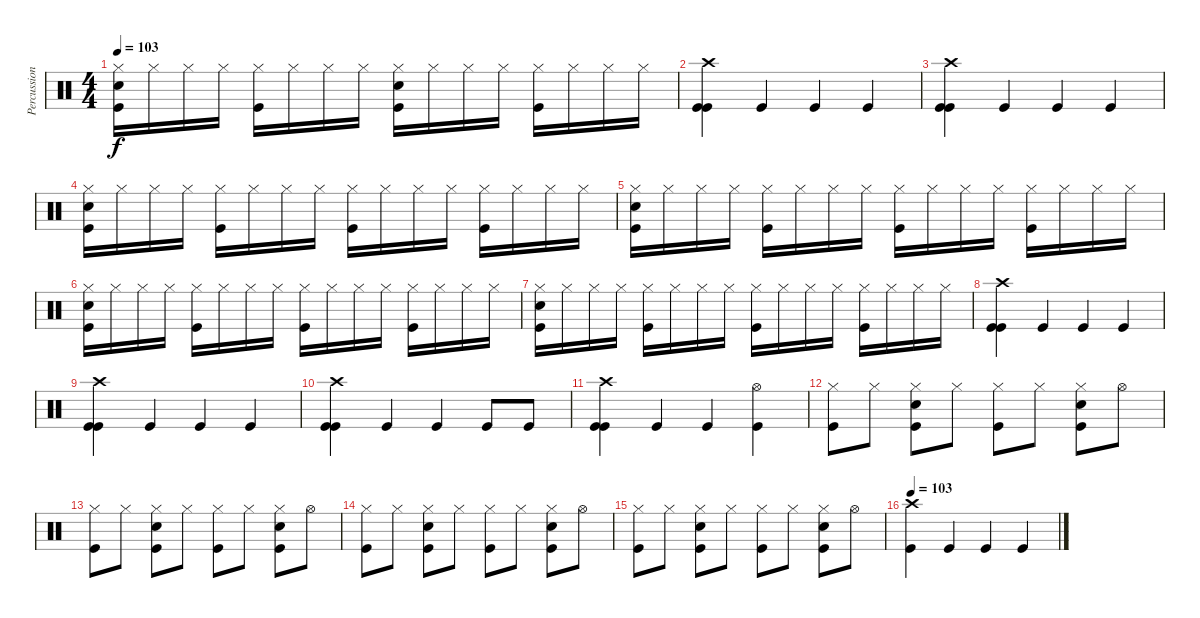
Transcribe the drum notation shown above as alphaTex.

\track ("Percussions" "Percussion") {instrument percussion}
\staff {score}
\articulation defaults
\ts (4 4)
\tempo 103
\clef neutral
\ks c
("Hi-Hat (closed)" "Kick (hit)" "Snare (hit) 2").16{dy f} "Hi-Hat (closed)".16 "Hi-Hat (closed)".16 "Hi-Hat (closed)".16 ("Hi-Hat (closed)" "Kick (hit)").16 "Hi-Hat (closed)".16 "Hi-Hat (closed)".16 "Hi-Hat (closed)".16 ("Hi-Hat (closed)" "Kick (hit)" "Snare (hit) 2").16 "Hi-Hat (closed)".16 "Hi-Hat (closed)".16 "Hi-Hat (closed)".16 ("Hi-Hat (closed)" "Kick (hit)").16 "Hi-Hat (closed)".16 "Hi-Hat (closed)".16 "Hi-Hat (closed)".16 |
("Crash high (hit)" "Kick (hit)" "Kick (hit)").4 "Kick (hit)".4 "Kick (hit)".4 "Kick (hit)".4 |
("Crash high (hit)" "Kick (hit)" "Kick (hit)").4 "Kick (hit)".4 "Kick (hit)".4 "Kick (hit)".4 |
("Hi-Hat (closed)" "Kick (hit)" "Snare (hit) 2").16 "Hi-Hat (closed)".16 "Hi-Hat (closed)".16 "Hi-Hat (closed)".16 ("Hi-Hat (closed)" "Kick (hit)").16 "Hi-Hat (closed)".16 "Hi-Hat (closed)".16 "Hi-Hat (closed)".16 ("Hi-Hat (closed)" "Kick (hit)").16 "Hi-Hat (closed)".16 "Hi-Hat (closed)".16 "Hi-Hat (closed)".16 ("Hi-Hat (closed)" "Kick (hit)").16 "Hi-Hat (closed)".16 "Hi-Hat (closed)".16 "Hi-Hat (closed)".16 |
("Hi-Hat (closed)" "Kick (hit)" "Snare (hit) 2").16 "Hi-Hat (closed)".16 "Hi-Hat (closed)".16 "Hi-Hat (closed)".16 ("Hi-Hat (closed)" "Kick (hit)").16 "Hi-Hat (closed)".16 "Hi-Hat (closed)".16 "Hi-Hat (closed)".16 ("Hi-Hat (closed)" "Kick (hit)").16 "Hi-Hat (closed)".16 "Hi-Hat (closed)".16 "Hi-Hat (closed)".16 ("Hi-Hat (closed)" "Kick (hit)").16 "Hi-Hat (closed)".16 "Hi-Hat (closed)".16 "Hi-Hat (closed)".16 |
("Hi-Hat (closed)" "Kick (hit)" "Snare (hit) 2").16 "Hi-Hat (closed)".16 "Hi-Hat (closed)".16 "Hi-Hat (closed)".16 ("Hi-Hat (closed)" "Kick (hit)").16 "Hi-Hat (closed)".16 "Hi-Hat (closed)".16 "Hi-Hat (closed)".16 ("Hi-Hat (closed)" "Kick (hit)").16 "Hi-Hat (closed)".16 "Hi-Hat (closed)".16 "Hi-Hat (closed)".16 ("Hi-Hat (closed)" "Kick (hit)").16 "Hi-Hat (closed)".16 "Hi-Hat (closed)".16 "Hi-Hat (closed)".16 |
("Hi-Hat (closed)" "Kick (hit)" "Snare (hit) 2").16 "Hi-Hat (closed)".16 "Hi-Hat (closed)".16 "Hi-Hat (closed)".16 ("Hi-Hat (closed)" "Kick (hit)").16 "Hi-Hat (closed)".16 "Hi-Hat (closed)".16 "Hi-Hat (closed)".16 ("Hi-Hat (closed)" "Kick (hit)").16 "Hi-Hat (closed)".16 "Hi-Hat (closed)".16 "Hi-Hat (closed)".16 ("Hi-Hat (closed)" "Kick (hit)").16 "Hi-Hat (closed)".16 "Hi-Hat (closed)".16 "Hi-Hat (closed)".16 |
("Crash high (hit)" "Kick (hit)" "Kick (hit)").4 "Kick (hit)".4 "Kick (hit)".4 "Kick (hit)".4 |
("Crash high (hit)" "Kick (hit)" "Kick (hit)").4 "Kick (hit)".4 "Kick (hit)".4 "Kick (hit)".4 |
("Crash high (hit)" "Kick (hit)" "Kick (hit)").4 "Kick (hit)".4 "Kick (hit)".4 "Kick (hit)".8 "Kick (hit)".8 |
("Crash high (hit)" "Kick (hit)" "Kick (hit)").4 "Kick (hit)".4 "Kick (hit)".4 ("Hi-Hat (open)" "Kick (hit)").4 |
("Hi-Hat (closed)" "Kick (hit)").8 "Hi-Hat (closed)".8 ("Hi-Hat (closed)" "Kick (hit)" "Snare (hit) 2").8 "Hi-Hat (closed)".8 ("Hi-Hat (closed)" "Kick (hit)").8 "Hi-Hat (closed)".8 ("Hi-Hat (closed)" "Kick (hit)" "Snare (hit) 2").8 "Hi-Hat (open)".8 |
("Hi-Hat (closed)" "Kick (hit)").8 "Hi-Hat (closed)".8 ("Hi-Hat (closed)" "Kick (hit)" "Snare (hit) 2").8 "Hi-Hat (closed)".8 ("Hi-Hat (closed)" "Kick (hit)").8 "Hi-Hat (closed)".8 ("Hi-Hat (closed)" "Kick (hit)" "Snare (hit) 2").8 "Hi-Hat (open)".8 |
("Hi-Hat (closed)" "Kick (hit)").8 "Hi-Hat (closed)".8 ("Hi-Hat (closed)" "Kick (hit)" "Snare (hit) 2").8 "Hi-Hat (closed)".8 ("Hi-Hat (closed)" "Kick (hit)").8 "Hi-Hat (closed)".8 ("Hi-Hat (closed)" "Kick (hit)" "Snare (hit) 2").8 "Hi-Hat (open)".8 |
("Hi-Hat (closed)" "Kick (hit)").8 "Hi-Hat (closed)".8 ("Hi-Hat (closed)" "Kick (hit)" "Snare (hit) 2").8 "Hi-Hat (closed)".8 ("Hi-Hat (closed)" "Kick (hit)").8 "Hi-Hat (closed)".8 ("Hi-Hat (closed)" "Kick (hit)" "Snare (hit) 2").8 "Hi-Hat (open)".8 |
\tempo 103
("Kick (hit)" "Crash high (hit)").4 "Kick (hit)".4 "Kick (hit)".4 "Kick (hit)".4
